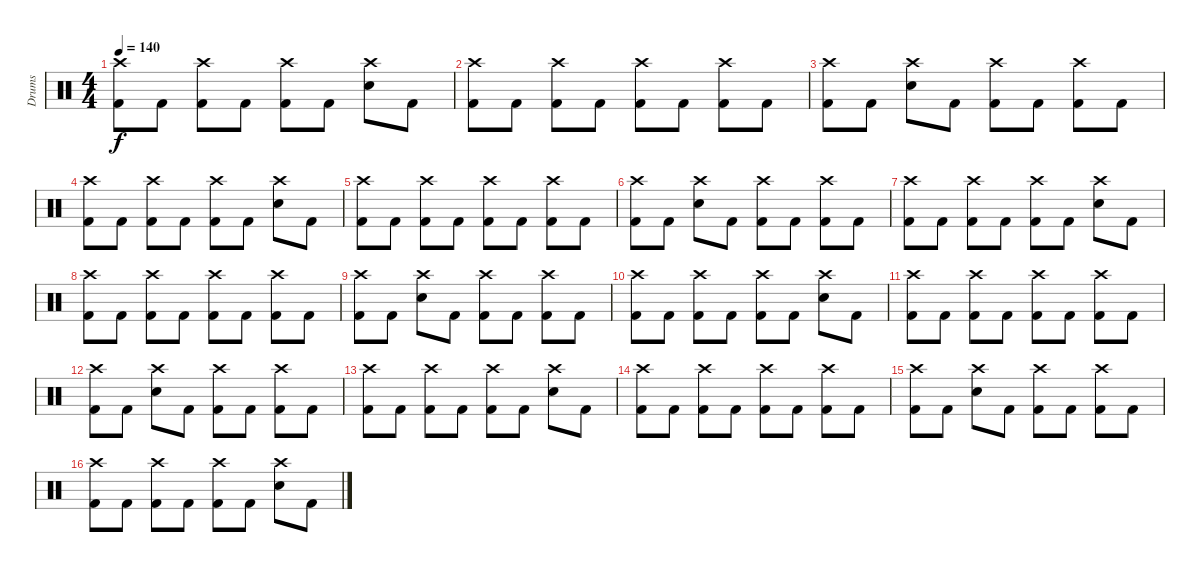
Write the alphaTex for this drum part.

\track ("Drums" "Drums") {instrument percussion}
\staff {score}
\articulation defaults
\ts (4 4)
\tempo 140
\clef neutral
\ks c
("Kick (hit) 2" "Crash high (hit)").8{dy f} "Kick (hit) 2".8 ("Kick (hit) 2" "Crash high (hit)").8 "Kick (hit) 2".8 ("Kick (hit) 2" "Crash high (hit)").8 "Kick (hit) 2".8 ("Crash high (hit)" "Electric Snare (hit)").8 "Kick (hit) 2".8 |
("Kick (hit) 2" "Crash high (hit)").8 "Kick (hit) 2".8 ("Kick (hit) 2" "Crash high (hit)").8 "Kick (hit) 2".8 ("Kick (hit) 2" "Crash high (hit)").8 "Kick (hit) 2".8 ("Kick (hit) 2" "Crash high (hit)").8 "Kick (hit) 2".8 |
("Kick (hit) 2" "Crash high (hit)").8 "Kick (hit) 2".8 ("Crash high (hit)" "Electric Snare (hit)").8 "Kick (hit) 2".8 ("Kick (hit) 2" "Crash high (hit)").8 "Kick (hit) 2".8 ("Kick (hit) 2" "Crash high (hit)").8 "Kick (hit) 2".8 |
("Kick (hit) 2" "Crash high (hit)").8 "Kick (hit) 2".8 ("Kick (hit) 2" "Crash high (hit)").8 "Kick (hit) 2".8 ("Kick (hit) 2" "Crash high (hit)").8 "Kick (hit) 2".8 ("Crash high (hit)" "Electric Snare (hit)").8 "Kick (hit) 2".8 |
("Kick (hit) 2" "Crash high (hit)").8 "Kick (hit) 2".8 ("Kick (hit) 2" "Crash high (hit)").8 "Kick (hit) 2".8 ("Kick (hit) 2" "Crash high (hit)").8 "Kick (hit) 2".8 ("Kick (hit) 2" "Crash high (hit)").8 "Kick (hit) 2".8 |
("Kick (hit) 2" "Crash high (hit)").8 "Kick (hit) 2".8 ("Crash high (hit)" "Electric Snare (hit)").8 "Kick (hit) 2".8 ("Kick (hit) 2" "Crash high (hit)").8 "Kick (hit) 2".8 ("Kick (hit) 2" "Crash high (hit)").8 "Kick (hit) 2".8 |
("Kick (hit) 2" "Crash high (hit)").8 "Kick (hit) 2".8 ("Kick (hit) 2" "Crash high (hit)").8 "Kick (hit) 2".8 ("Kick (hit) 2" "Crash high (hit)").8 "Kick (hit) 2".8 ("Crash high (hit)" "Electric Snare (hit)").8 "Kick (hit) 2".8 |
("Kick (hit) 2" "Crash high (hit)").8 "Kick (hit) 2".8 ("Kick (hit) 2" "Crash high (hit)").8 "Kick (hit) 2".8 ("Kick (hit) 2" "Crash high (hit)").8 "Kick (hit) 2".8 ("Kick (hit) 2" "Crash high (hit)").8 "Kick (hit) 2".8 |
("Kick (hit) 2" "Crash high (hit)").8 "Kick (hit) 2".8 ("Crash high (hit)" "Electric Snare (hit)").8 "Kick (hit) 2".8 ("Kick (hit) 2" "Crash high (hit)").8 "Kick (hit) 2".8 ("Kick (hit) 2" "Crash high (hit)").8 "Kick (hit) 2".8 |
("Kick (hit) 2" "Crash high (hit)").8 "Kick (hit) 2".8 ("Kick (hit) 2" "Crash high (hit)").8 "Kick (hit) 2".8 ("Kick (hit) 2" "Crash high (hit)").8 "Kick (hit) 2".8 ("Crash high (hit)" "Electric Snare (hit)").8 "Kick (hit) 2".8 |
("Kick (hit) 2" "Crash high (hit)").8 "Kick (hit) 2".8 ("Kick (hit) 2" "Crash high (hit)").8 "Kick (hit) 2".8 ("Kick (hit) 2" "Crash high (hit)").8 "Kick (hit) 2".8 ("Kick (hit) 2" "Crash high (hit)").8 "Kick (hit) 2".8 |
("Kick (hit) 2" "Crash high (hit)").8 "Kick (hit) 2".8 ("Crash high (hit)" "Electric Snare (hit)").8 "Kick (hit) 2".8 ("Kick (hit) 2" "Crash high (hit)").8 "Kick (hit) 2".8 ("Kick (hit) 2" "Crash high (hit)").8 "Kick (hit) 2".8 |
("Kick (hit) 2" "Crash high (hit)").8 "Kick (hit) 2".8 ("Kick (hit) 2" "Crash high (hit)").8 "Kick (hit) 2".8 ("Kick (hit) 2" "Crash high (hit)").8 "Kick (hit) 2".8 ("Crash high (hit)" "Electric Snare (hit)").8 "Kick (hit) 2".8 |
("Kick (hit) 2" "Crash high (hit)").8 "Kick (hit) 2".8 ("Kick (hit) 2" "Crash high (hit)").8 "Kick (hit) 2".8 ("Kick (hit) 2" "Crash high (hit)").8 "Kick (hit) 2".8 ("Kick (hit) 2" "Crash high (hit)").8 "Kick (hit) 2".8 |
("Kick (hit) 2" "Crash high (hit)").8 "Kick (hit) 2".8 ("Crash high (hit)" "Electric Snare (hit)").8 "Kick (hit) 2".8 ("Kick (hit) 2" "Crash high (hit)").8 "Kick (hit) 2".8 ("Kick (hit) 2" "Crash high (hit)").8 "Kick (hit) 2".8 |
("Kick (hit) 2" "Crash high (hit)").8 "Kick (hit) 2".8 ("Kick (hit) 2" "Crash high (hit)").8 "Kick (hit) 2".8 ("Kick (hit) 2" "Crash high (hit)").8 "Kick (hit) 2".8 ("Crash high (hit)" "Electric Snare (hit)").8 "Kick (hit) 2".8
